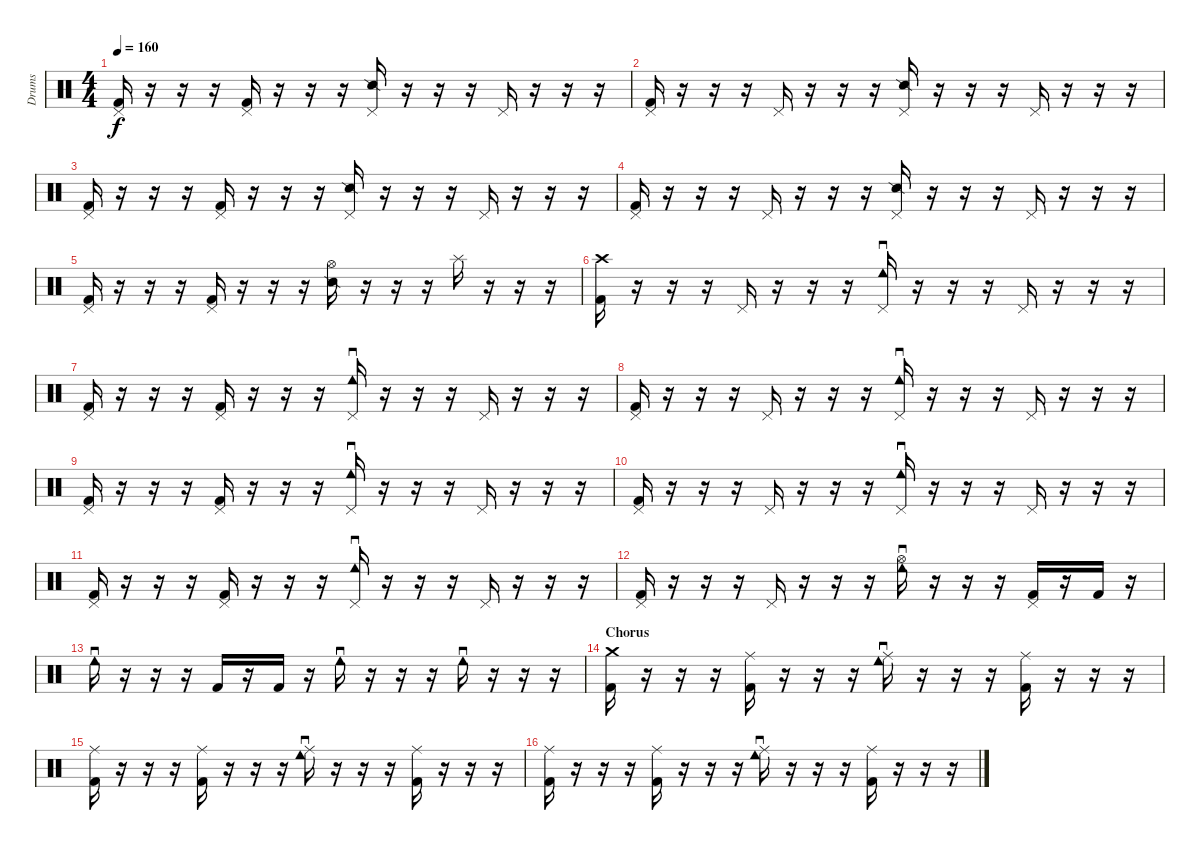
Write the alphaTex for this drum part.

\track ("Drums" "Drums") {instrument percussion}
\staff {score}
\articulation defaults
\ts (4 4)
\tempo 160
\clef neutral
\ks c
("Pedal Hi-Hat (hit)" "Kick (hit) 2").16{dy f} r.16 r.16 r.16 ("Pedal Hi-Hat (hit)" "Kick (hit) 2").16 r.16 r.16 r.16 ("Pedal Hi-Hat (hit)" "Snare (side stick) 2").16 r.16 r.16 r.16 "Pedal Hi-Hat (hit)".16 r.16 r.16 r.16 |
("Pedal Hi-Hat (hit)" "Kick (hit) 2").16 r.16 r.16 r.16 "Pedal Hi-Hat (hit)".16 r.16 r.16 r.16 ("Pedal Hi-Hat (hit)" "Snare (side stick) 2").16 r.16 r.16 r.16 "Pedal Hi-Hat (hit)".16 r.16 r.16 r.16 |
("Pedal Hi-Hat (hit)" "Kick (hit) 2").16 r.16 r.16 r.16 ("Pedal Hi-Hat (hit)" "Kick (hit) 2").16 r.16 r.16 r.16 ("Pedal Hi-Hat (hit)" "Snare (side stick) 2").16 r.16 r.16 r.16 "Pedal Hi-Hat (hit)".16 r.16 r.16 r.16 |
("Pedal Hi-Hat (hit)" "Kick (hit) 2").16 r.16 r.16 r.16 "Pedal Hi-Hat (hit)".16 r.16 r.16 r.16 ("Pedal Hi-Hat (hit)" "Snare (side stick) 2").16 r.16 r.16 r.16 "Pedal Hi-Hat (hit)".16 r.16 r.16 r.16 |
("Pedal Hi-Hat (hit)" "Kick (hit) 2").16 r.16 r.16 r.16 ("Pedal Hi-Hat (hit)" "Kick (hit) 2").16 r.16 r.16 r.16 ("Hi-Hat (open)" "Snare (side stick) 2").16 r.16 r.16 r.16 "Splash (hit)".16 r.16 r.16 r.16 |
("Crash high (hit)" "Kick (hit) 2").16 r.16 r.16 r.16 "Pedal Hi-Hat (hit)".16 r.16 r.16 r.16 ("Pedal Hi-Hat (hit)" "Tambourine (roll)").16 r.16 r.16 r.16 "Pedal Hi-Hat (hit)".16 r.16 r.16 r.16 |
("Pedal Hi-Hat (hit)" "Kick (hit) 2").16 r.16 r.16 r.16 ("Pedal Hi-Hat (hit)" "Kick (hit) 2").16 r.16 r.16 r.16 ("Pedal Hi-Hat (hit)" "Tambourine (roll)").16 r.16 r.16 r.16 "Pedal Hi-Hat (hit)".16 r.16 r.16 r.16 |
("Pedal Hi-Hat (hit)" "Kick (hit) 2").16 r.16 r.16 r.16 "Pedal Hi-Hat (hit)".16 r.16 r.16 r.16 ("Pedal Hi-Hat (hit)" "Tambourine (roll)").16 r.16 r.16 r.16 "Pedal Hi-Hat (hit)".16 r.16 r.16 r.16 |
("Pedal Hi-Hat (hit)" "Kick (hit) 2").16 r.16 r.16 r.16 ("Pedal Hi-Hat (hit)" "Kick (hit) 2").16 r.16 r.16 r.16 ("Pedal Hi-Hat (hit)" "Tambourine (roll)").16 r.16 r.16 r.16 "Pedal Hi-Hat (hit)".16 r.16 r.16 r.16 |
("Pedal Hi-Hat (hit)" "Kick (hit) 2").16 r.16 r.16 r.16 "Pedal Hi-Hat (hit)".16 r.16 r.16 r.16 ("Pedal Hi-Hat (hit)" "Tambourine (roll)").16 r.16 r.16 r.16 "Pedal Hi-Hat (hit)".16 r.16 r.16 r.16 |
("Pedal Hi-Hat (hit)" "Kick (hit) 2").16 r.16 r.16 r.16 ("Pedal Hi-Hat (hit)" "Kick (hit) 2").16 r.16 r.16 r.16 ("Pedal Hi-Hat (hit)" "Tambourine (roll)").16 r.16 r.16 r.16 "Pedal Hi-Hat (hit)".16 r.16 r.16 r.16 |
("Pedal Hi-Hat (hit)" "Kick (hit) 2").16 r.16 r.16 r.16 "Pedal Hi-Hat (hit)".16 r.16 r.16 r.16 ("Hi-Hat (open)" "Tambourine (roll)").16 r.16 r.16 r.16 ("Pedal Hi-Hat (hit)" "Kick (hit) 2").16 r.16 "Kick (hit) 2".16 r.16 |
"Tambourine (roll)".16 r.16 r.16 r.16 "Kick (hit) 2".16 r.16 "Kick (hit) 2".16 r.16 "Tambourine (roll)".16 r.16 r.16 r.16 "Tambourine (roll)".16 r.16 r.16 r.16 |
\section ("" "Chorus")
("Crash medium (hit)" "Kick (hit) 2").16 r.16 r.16 r.16 ("Ride (middle)" "Kick (hit) 2").16 r.16 r.16 r.16 ("Ride (middle)" "Tambourine (roll)").16 r.16 r.16 r.16 ("Ride (middle)" "Kick (hit) 2").16 r.16 r.16 r.16 |
("Ride (middle)" "Kick (hit) 2").16 r.16 r.16 r.16 ("Ride (middle)" "Kick (hit) 2").16 r.16 r.16 r.16 ("Ride (middle)" "Tambourine (roll)").16 r.16 r.16 r.16 ("Ride (middle)" "Kick (hit) 2").16 r.16 r.16 r.16 |
("Ride (middle)" "Kick (hit) 2").16 r.16 r.16 r.16 ("Ride (middle)" "Kick (hit) 2").16 r.16 r.16 r.16 ("Ride (middle)" "Tambourine (roll)").16 r.16 r.16 r.16 ("Ride (middle)" "Kick (hit) 2").16 r.16 r.16 r.16
